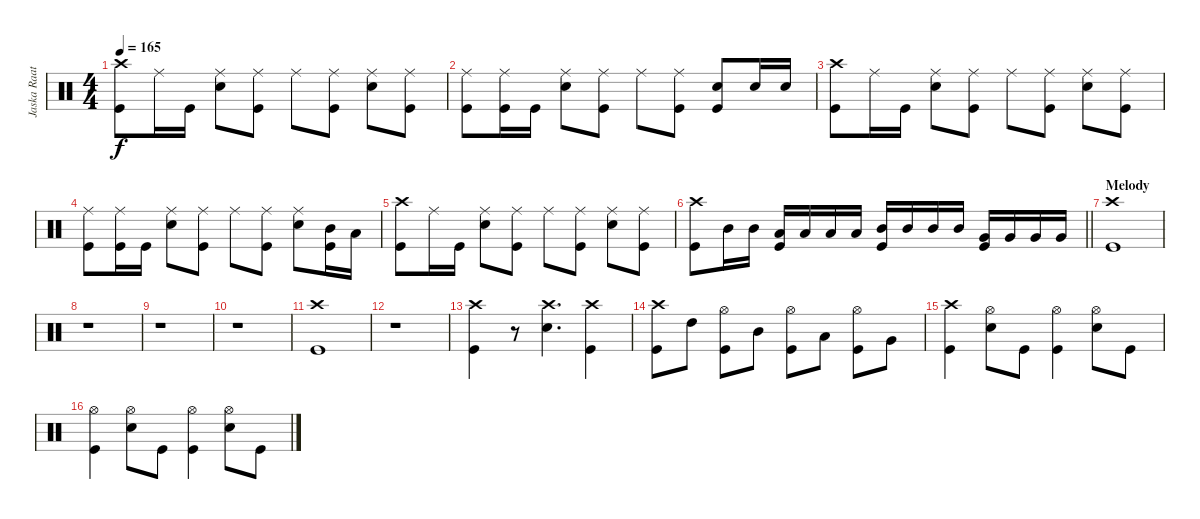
\track ("Jaska Raatikainen" "Jaska Raat") {instrument percussion}
\staff {score}
\articulation defaults
\ts (4 4)
\tempo 165
\clef neutral
\ks c
("Crash high (hit)" "Kick (hit)").8{dy f} "Ride (middle)".16 "Kick (hit)".16 ("Ride (middle)" "Electric Snare (hit)").8 ("Ride (middle)" "Kick (hit)").8 "Ride (middle)".8 ("Ride (middle)" "Kick (hit)").8 ("Ride (middle)" "Electric Snare (hit)").8 ("Ride (middle)" "Kick (hit)").8 |
("Ride (middle)" "Kick (hit)").8 ("Ride (middle)" "Kick (hit)").16 "Kick (hit)".16 ("Ride (middle)" "Electric Snare (hit)").8 ("Ride (middle)" "Kick (hit)").8 "Ride (middle)".8 ("Ride (middle)" "Kick (hit)").8 ("Electric Snare (hit)" "Kick (hit)").8 "Electric Snare (hit)".16 "Electric Snare (hit)".16 |
("Crash high (hit)" "Kick (hit)").8 "Ride (middle)".16 "Kick (hit)".16 ("Ride (middle)" "Electric Snare (hit)").8 ("Ride (middle)" "Kick (hit)").8 "Ride (middle)".8 ("Ride (middle)" "Kick (hit)").8 ("Ride (middle)" "Electric Snare (hit)").8 ("Ride (middle)" "Kick (hit)").8 |
("Ride (middle)" "Kick (hit)").8 ("Ride (middle)" "Kick (hit)").16 "Kick (hit)".16 ("Ride (middle)" "Electric Snare (hit)").8 ("Ride (middle)" "Kick (hit)").8 "Ride (middle)".8 ("Ride (middle)" "Kick (hit)").8 ("Ride (middle)" "Electric Snare (hit)").8 ("Mid Tom (hit)" "Kick (hit)").16 "Low Tom (hit)".16 |
("Crash high (hit)" "Kick (hit)").8 "Ride (middle)".16 "Kick (hit)".16 ("Ride (middle)" "Electric Snare (hit)").8 ("Ride (middle)" "Kick (hit)").8 "Ride (middle)".8 ("Ride (middle)" "Kick (hit)").8 ("Ride (middle)" "Electric Snare (hit)").8 ("Ride (middle)" "Kick (hit)").8 |
\barLineRight lightlight
("Crash high (hit)" "Kick (hit)").8 "Mid Tom (hit)".16 "Mid Tom (hit)".16 ("Low Tom (hit)" "Kick (hit)").16 "Low Tom (hit)".16 "Low Tom (hit)".16 "Low Tom (hit)".16 ("Mid Tom (hit)" "Kick (hit)").16 "Mid Tom (hit)".16 "Mid Tom (hit)".16 "Mid Tom (hit)".16 ("Very Low Tom (hit)" "Kick (hit)").16 "Very Low Tom (hit)".16 "Very Low Tom (hit)".16 "Very Low Tom (hit)".16 |
\section ("" "Melody")
("Crash high (hit)" "Kick (hit)").1 |
r.1 |
r.1 |
r.1 |
("Crash high (hit)" "Kick (hit)").1 |
r.1 |
("Crash high (hit)" "Kick (hit)").4 r.8 ("Crash high (hit)" "Electric Snare (hit)").4{d} ("Crash high (hit)" "Kick (hit)").4 |
("Crash high (hit)" "Kick (hit)").8 "High Tom (hit)".8 ("Hi-Hat (open)" "Kick (hit)").8 "Mid Tom (hit)".8 ("Hi-Hat (open)" "Kick (hit)").8 "Low Tom (hit)".8 ("Hi-Hat (open)" "Kick (hit)").8 "Very Low Tom (hit)".8 |
("Crash high (hit)" "Kick (hit)").4 ("Hi-Hat (open)" "Electric Snare (hit)").8 "Kick (hit)".8 ("Hi-Hat (open)" "Kick (hit)").4 ("Hi-Hat (open)" "Electric Snare (hit)").8 "Kick (hit)".8 |
("Hi-Hat (open)" "Kick (hit)").4 ("Hi-Hat (open)" "Electric Snare (hit)").8 "Kick (hit)".8 ("Hi-Hat (open)" "Kick (hit)").4 ("Hi-Hat (open)" "Electric Snare (hit)").8 "Kick (hit)".8
